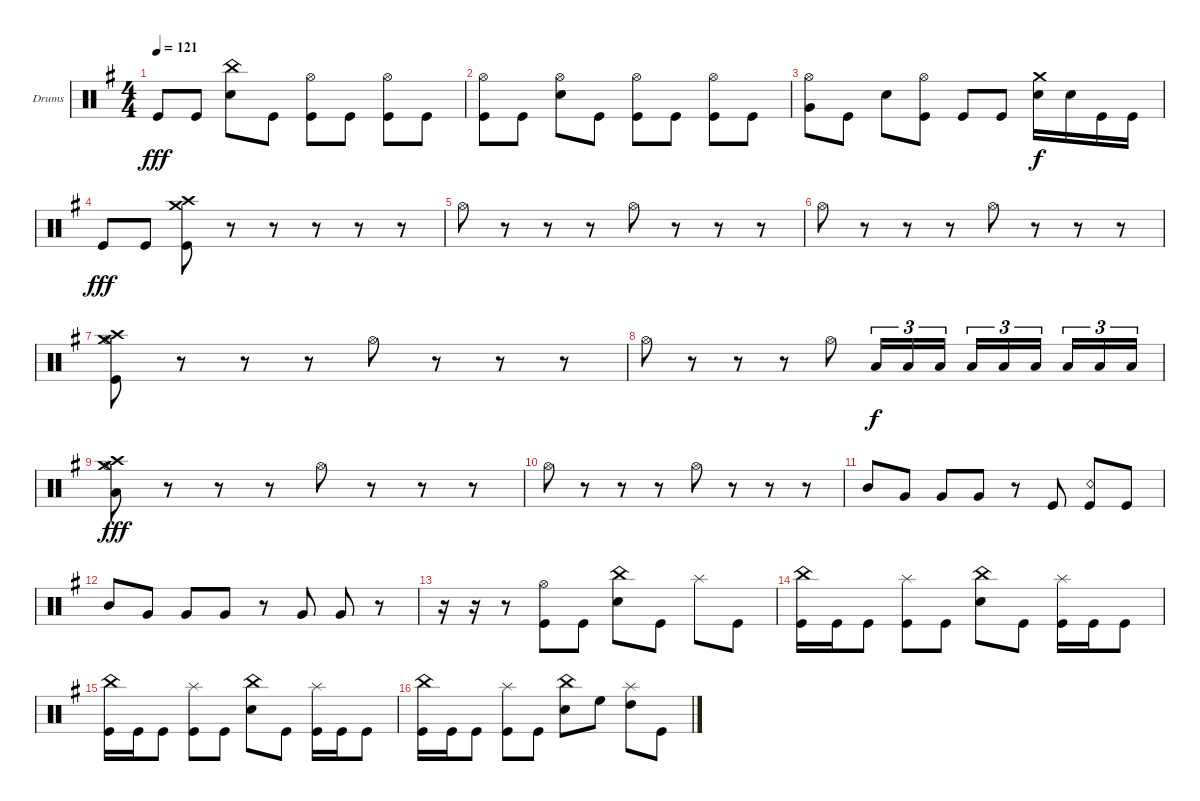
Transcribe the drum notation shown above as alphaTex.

\bracketExtendMode groupsimilarinstruments
\firstSystemTrackNameOrientation horizontal
\otherSystemsTrackNameOrientation horizontal
\track ("Drumkit" "Drums") {instrument percussion}
\staff {score}
\articulation defaults
\ts (4 4)
\tempo 121
\clef neutral
\scale
0.333333
\ks g "Kick (hit)".8{dy fff} "Kick (hit)".8
("China (hit)" "Snare (hit) 2").8 "Kick (hit)".8 ("Kick (hit)" "Hi-Hat (open)").8 "Kick (hit)".8 ("Kick (hit)" "Hi-Hat (open)").8 "Kick (hit)".8 |
\scale
0.333333 ("Kick (hit)" "Hi-Hat (open)").8 "Kick (hit)".8 ("Snare (hit) 2" "Hi-Hat (open)").8 "Kick (hit)".8 ("Kick (hit)" "Hi-Hat (open)").8 "Kick (hit)".8 ("Kick (hit)" "Hi-Hat (open)").8 "Kick (hit)".8 |
\scale
0.333333 ("Hi-Hat (open)" "Very Low Tom (hit)").8 "Kick (hit)".8 "Snare (hit) 2".8 ("Kick (hit)" "Hi-Hat (open)").8 "Kick (hit)".8 "Kick (hit)".8 ("Snare (hit) 2" "Crash medium (hit)").16{dy f} "Snare (hit) 2".16 "Kick (hit)".16 "Kick (hit)".16 |
\scale
0.333333 "Kick (hit)".8{dy fff} "Kick (hit)".8 ("Kick (hit)" "Crash medium (hit)" "Crash high (hit)").8 r.8 r.8 r.8 r.8 r.8 |
\scale
0.333333 "Hi-Hat (open)".8 r.8 r.8 r.8 "Hi-Hat (open)".8 r.8 r.8 r.8 |
\scale
0.333333 "Hi-Hat (open)".8 r.8 r.8 r.8 "Hi-Hat (open)".8 r.8 r.8 r.8 |
\scale
0.333333 ("Hi-Hat (open)" "Crash high (hit)" "Crash medium (hit)" "Kick (hit)").8 r.8 r.8 r.8 "Hi-Hat (open)".8 r.8 r.8 r.8 |
\scale
0.333333 "Hi-Hat (open)".8 r.8 r.8 r.8 "Hi-Hat (open)".8 "Low Tom (hit)".16{tu (3 2) dy f} "Low Tom (hit)".16{tu (3 2)} "Low Tom (hit)".16{tu (3 2)} "Low Tom (hit)".16{tu (3 2)} "Low Tom (hit)".16{tu (3 2)} "Low Tom (hit)".16{tu (3 2)} "Low Tom (hit)".16{tu (3 2)} "Low Tom (hit)".16{tu (3 2)} "Low Tom (hit)".16{tu (3 2)} |
\scale
0.333333 ("Hi-Hat (open)" "Crash high (hit)" "Crash medium (hit)" "Low Tom (hit)").8{dy fff} r.8 r.8 r.8 "Hi-Hat (open)".8 r.8 r.8 r.8 |
\scale
0.333333 "Hi-Hat (open)".8 r.8 r.8 r.8 "Hi-Hat (open)".8 r.8 r.8 r.8 |
\scale
0.333333 "Mid Tom (hit)".8 "Very Low Tom (hit)".8 "Very Low Tom (hit)".8 "Very Low Tom (hit)".8 r.8 "Kick (hit)".8 ("Kick (hit)" "Snare (rim shot)").8 "Kick (hit)".8 |
\scale
0.333333 "Mid Tom (hit)".8 "Very Low Tom (hit)".8 "Very Low Tom (hit)".8 "Very Low Tom (hit)".8 r.8 "Very Low Tom (hit)".8 "Very Low Tom (hit)".8 r.8 |
\scale
0.333333 r.16 r.16 r.8 ("Kick (hit)" "Hi-Hat (open)").8 "Kick (hit)".8 ("Snare (hit) 2" "China (hit)").8 "Kick (hit)".8 "Splash (hit)".8 "Kick (hit)".8 |
\scale
0.333333 ("China (hit)" "Kick (hit)").16 "Kick (hit)".16 "Kick (hit)".8 ("Kick (hit)" "Splash (hit)").8 "Kick (hit)".8 ("China (hit)" "Snare (hit) 2").8 "Kick (hit)".8 ("Kick (hit)" "Splash (hit)").16 "Kick (hit)".16 "Kick (hit)".8 |
\scale
0.333333 ("China (hit)" "Kick (hit)").16 "Kick (hit)".16 "Kick (hit)".8 ("Kick (hit)" "Splash (hit)").8 "Kick (hit)".8 ("China (hit)" "Snare (hit) 2").8 "Kick (hit)".8 ("Kick (hit)" "Splash (hit)").16 "Kick (hit)".16 "Kick (hit)".8 |
\scale
0.333333 ("China (hit)" "Kick (hit)").16 "Kick (hit)".16 "Kick (hit)".8 ("Kick (hit)" "Splash (hit)").8 "Kick (hit)".8 ("China (hit)" "Snare (hit) 2").8 "High Floor Tom (hit)".8 ("High Tom (hit)" "Splash (hit)").8 "Kick (hit)".8
